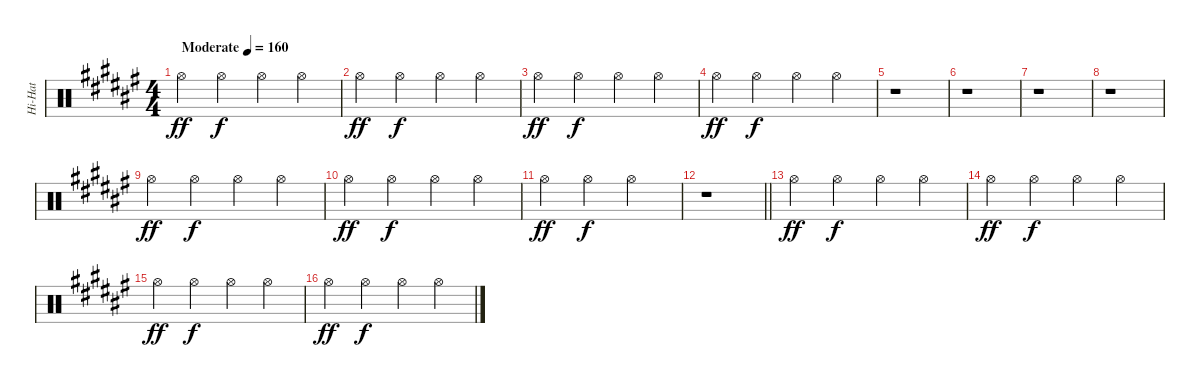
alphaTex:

\track ("Hi-Hat" "Hi-Hat") {instrument percussion}
\staff {score}
\articulation defaults
\ts (4 4)
\tempo (160 "Moderate")
\clef neutral
\ks d#minor "Hi-Hat (open)".4{dy ff} "Hi-Hat (open)".4{dy f} "Hi-Hat (open)".4 "Hi-Hat (open)".4
|
"Hi-Hat (open)".4{dy ff} "Hi-Hat (open)".4{dy f} "Hi-Hat (open)".4 "Hi-Hat (open)".4 |
"Hi-Hat (open)".4{dy ff} "Hi-Hat (open)".4{dy f} "Hi-Hat (open)".4 "Hi-Hat (open)".4 |
"Hi-Hat (open)".4{dy ff} "Hi-Hat (open)".4{dy f} "Hi-Hat (open)".4 "Hi-Hat (open)".4 |
r.1 |
r.1 |
r.1 |
r.1 |
"Hi-Hat (open)".4{dy ff} "Hi-Hat (open)".4{dy f} "Hi-Hat (open)".4 "Hi-Hat (open)".4 |
"Hi-Hat (open)".4{dy ff} "Hi-Hat (open)".4{dy f} "Hi-Hat (open)".4 "Hi-Hat (open)".4 |
"Hi-Hat (open)".4{dy ff} "Hi-Hat (open)".4{dy f} "Hi-Hat (open)".2 |
\barLineRight lightlight
r.1 |
"Hi-Hat (open)".4{dy ff} "Hi-Hat (open)".4{dy f} "Hi-Hat (open)".4 "Hi-Hat (open)".4 |
"Hi-Hat (open)".4{dy ff} "Hi-Hat (open)".4{dy f} "Hi-Hat (open)".4 "Hi-Hat (open)".4 |
"Hi-Hat (open)".4{dy ff} "Hi-Hat (open)".4{dy f} "Hi-Hat (open)".4 "Hi-Hat (open)".4 |
"Hi-Hat (open)".4{dy ff} "Hi-Hat (open)".4{dy f} "Hi-Hat (open)".4 "Hi-Hat (open)".4
